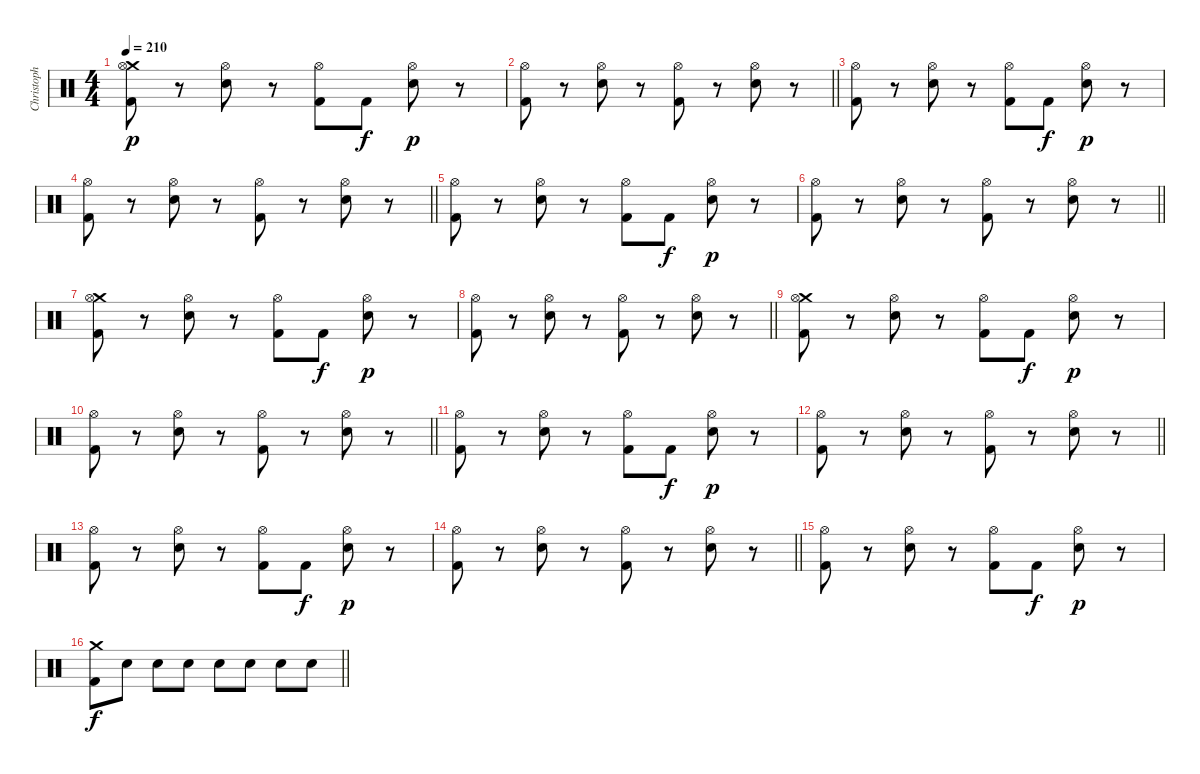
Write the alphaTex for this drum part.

\track ("Christoph Schneider" "Christoph ") {instrument percussion}
\staff {score}
\articulation defaults
\ts (4 4)
\tempo 210
\clef neutral
\ks c
("Crash medium (hit)" "Kick (hit) 2" "Hi-Hat (open)").8{dy p} r.8 ("Hi-Hat (open)" "Electric Snare (hit)").8 r.8 ("Hi-Hat (open)" "Kick (hit) 2").8 "Kick (hit) 2".8{dy f} ("Hi-Hat (open)" "Electric Snare (hit)").8{dy p} r.8 |
\barLineRight lightlight
("Kick (hit) 2" "Hi-Hat (open)").8 r.8 ("Hi-Hat (open)" "Electric Snare (hit)").8 r.8 ("Hi-Hat (open)" "Kick (hit) 2").8 r.8 ("Hi-Hat (open)" "Electric Snare (hit)").8 r.8 |
("Kick (hit) 2" "Hi-Hat (open)").8 r.8 ("Hi-Hat (open)" "Electric Snare (hit)").8 r.8 ("Hi-Hat (open)" "Kick (hit) 2").8 "Kick (hit) 2".8{dy f} ("Hi-Hat (open)" "Electric Snare (hit)").8{dy p} r.8 |
\barLineRight lightlight
("Kick (hit) 2" "Hi-Hat (open)").8 r.8 ("Hi-Hat (open)" "Electric Snare (hit)").8 r.8 ("Hi-Hat (open)" "Kick (hit) 2").8 r.8 ("Hi-Hat (open)" "Electric Snare (hit)").8 r.8 |
("Kick (hit) 2" "Hi-Hat (open)").8 r.8 ("Hi-Hat (open)" "Electric Snare (hit)").8 r.8 ("Hi-Hat (open)" "Kick (hit) 2").8 "Kick (hit) 2".8{dy f} ("Hi-Hat (open)" "Electric Snare (hit)").8{dy p} r.8 |
\barLineRight lightlight
("Kick (hit) 2" "Hi-Hat (open)").8 r.8 ("Hi-Hat (open)" "Electric Snare (hit)").8 r.8 ("Hi-Hat (open)" "Kick (hit) 2").8 r.8 ("Hi-Hat (open)" "Electric Snare (hit)").8 r.8 |
("Crash medium (hit)" "Kick (hit) 2" "Hi-Hat (open)").8 r.8 ("Hi-Hat (open)" "Electric Snare (hit)").8 r.8 ("Hi-Hat (open)" "Kick (hit) 2").8 "Kick (hit) 2".8{dy f} ("Hi-Hat (open)" "Electric Snare (hit)").8{dy p} r.8 |
\barLineRight lightlight
("Kick (hit) 2" "Hi-Hat (open)").8 r.8 ("Hi-Hat (open)" "Electric Snare (hit)").8 r.8 ("Hi-Hat (open)" "Kick (hit) 2").8 r.8 ("Hi-Hat (open)" "Electric Snare (hit)").8 r.8 |
("Crash medium (hit)" "Kick (hit) 2" "Hi-Hat (open)").8 r.8 ("Hi-Hat (open)" "Electric Snare (hit)").8 r.8 ("Hi-Hat (open)" "Kick (hit) 2").8 "Kick (hit) 2".8{dy f} ("Hi-Hat (open)" "Electric Snare (hit)").8{dy p} r.8 |
\barLineRight lightlight
("Kick (hit) 2" "Hi-Hat (open)").8 r.8 ("Hi-Hat (open)" "Electric Snare (hit)").8 r.8 ("Hi-Hat (open)" "Kick (hit) 2").8 r.8 ("Hi-Hat (open)" "Electric Snare (hit)").8 r.8 |
("Kick (hit) 2" "Hi-Hat (open)").8 r.8 ("Hi-Hat (open)" "Electric Snare (hit)").8 r.8 ("Hi-Hat (open)" "Kick (hit) 2").8 "Kick (hit) 2".8{dy f} ("Hi-Hat (open)" "Electric Snare (hit)").8{dy p} r.8 |
\barLineRight lightlight
("Kick (hit) 2" "Hi-Hat (open)").8 r.8 ("Hi-Hat (open)" "Electric Snare (hit)").8 r.8 ("Hi-Hat (open)" "Kick (hit) 2").8 r.8 ("Hi-Hat (open)" "Electric Snare (hit)").8 r.8 |
("Kick (hit) 2" "Hi-Hat (open)").8 r.8 ("Hi-Hat (open)" "Electric Snare (hit)").8 r.8 ("Hi-Hat (open)" "Kick (hit) 2").8 "Kick (hit) 2".8{dy f} ("Hi-Hat (open)" "Electric Snare (hit)").8{dy p} r.8 |
\barLineRight lightlight
("Kick (hit) 2" "Hi-Hat (open)").8 r.8 ("Hi-Hat (open)" "Electric Snare (hit)").8 r.8 ("Hi-Hat (open)" "Kick (hit) 2").8 r.8 ("Hi-Hat (open)" "Electric Snare (hit)").8 r.8 |
("Kick (hit) 2" "Hi-Hat (open)").8 r.8 ("Hi-Hat (open)" "Electric Snare (hit)").8 r.8 ("Hi-Hat (open)" "Kick (hit) 2").8 "Kick (hit) 2".8{dy f} ("Hi-Hat (open)" "Electric Snare (hit)").8{dy p} r.8 |
\barLineRight lightlight
("Crash medium (hit)" "Kick (hit) 2").8{dy f} "Electric Snare (hit)".8 "Electric Snare (hit)".8 "Electric Snare (hit)".8 "Electric Snare (hit)".8 "Electric Snare (hit)".8 "Electric Snare (hit)".8 "Electric Snare (hit)".8
